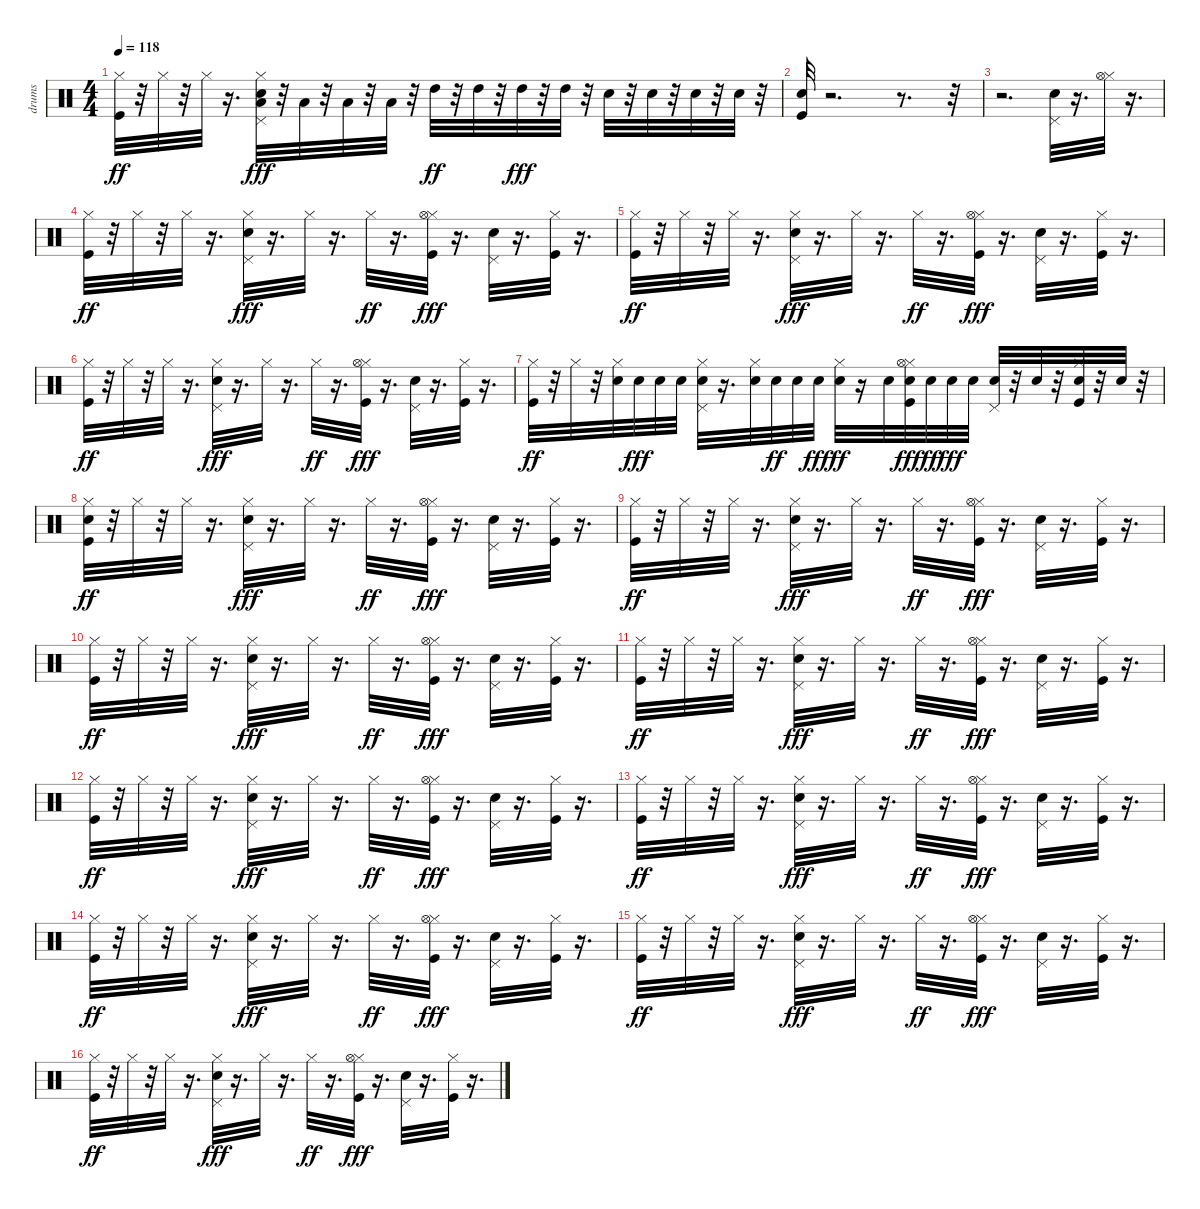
\track ("drums   " "drums   ") {instrument percussion}
\staff {score}
\articulation defaults
\ts (4 4)
\tempo 118
\clef neutral
\ks c
("Kick (hit)" "Hi-Hat (closed)").32{dy ff} r.32 "Hi-Hat (closed)".32 r.32 "Hi-Hat (closed)".32 r.16{d} ("Electric Snare (hit)" "Hi-Hat (closed)" "Pedal Hi-Hat (hit)" "Low Tom (hit)").32{dy fff} r.32 "Low Tom (hit)".32 r.32 "Low Tom (hit)".32 r.32 "Low Tom (hit)".32 r.32 "High Tom (hit)".32{dy ff} r.32 "High Tom (hit)".32 r.32 "High Tom (hit)".32{dy fff} r.32 "High Tom (hit)".32 r.32 "Electric Snare (hit)".32 r.32 "Electric Snare (hit)".32 r.32 "Electric Snare (hit)".32 r.32 "Electric Snare (hit)".32 r.32 |
("Kick (hit)" "Electric Snare (hit)").32 r.2{d} r.8{d} r.32 |
r.2{d} ("Electric Snare (hit)" "Pedal Hi-Hat (hit)").32 r.16{d} ("Hi-Hat (closed)" "Hi-Hat (open)").32 r.16{d} |
("Kick (hit)" "Hi-Hat (closed)").32{dy ff} r.32 "Hi-Hat (closed)".32 r.32 "Hi-Hat (closed)".32 r.16{d} ("Electric Snare (hit)" "Hi-Hat (closed)" "Pedal Hi-Hat (hit)").32{dy fff} r.16{d} "Hi-Hat (closed)".32 r.16{d} "Hi-Hat (closed)".32{dy ff} r.16{d} ("Kick (hit)" "Hi-Hat (closed)" "Hi-Hat (open)").32{dy fff} r.16{d} ("Electric Snare (hit)" "Pedal Hi-Hat (hit)").32 r.16{d} ("Kick (hit)" "Hi-Hat (closed)").32 r.16{d} |
("Kick (hit)" "Hi-Hat (closed)").32{dy ff} r.32 "Hi-Hat (closed)".32 r.32 "Hi-Hat (closed)".32 r.16{d} ("Electric Snare (hit)" "Hi-Hat (closed)" "Pedal Hi-Hat (hit)").32{dy fff} r.16{d} "Hi-Hat (closed)".32 r.16{d} "Hi-Hat (closed)".32{dy ff} r.16{d} ("Kick (hit)" "Hi-Hat (closed)" "Hi-Hat (open)").32{dy fff} r.16{d} ("Electric Snare (hit)" "Pedal Hi-Hat (hit)").32 r.16{d} ("Kick (hit)" "Hi-Hat (closed)").32 r.16{d} |
("Kick (hit)" "Hi-Hat (closed)").32{dy ff} r.32 "Hi-Hat (closed)".32 r.32 "Hi-Hat (closed)".32 r.16{d} ("Electric Snare (hit)" "Hi-Hat (closed)" "Pedal Hi-Hat (hit)").32{dy fff} r.16{d} "Hi-Hat (closed)".32 r.16{d} "Hi-Hat (closed)".32{dy ff} r.16{d} ("Kick (hit)" "Hi-Hat (closed)" "Hi-Hat (open)").32{dy fff} r.16{d} ("Electric Snare (hit)" "Pedal Hi-Hat (hit)").32 r.16{d} ("Kick (hit)" "Hi-Hat (closed)").32 r.16{d} |
("Kick (hit)" "Hi-Hat (closed)").32{dy ff} r.32 "Hi-Hat (closed)".32 r.32 ("Electric Snare (hit)" "Hi-Hat (closed)").32 "Electric Snare (hit)".32{dy fff} "Electric Snare (hit)".32 "Electric Snare (hit)".32 ("Electric Snare (hit)" "Hi-Hat (closed)" "Pedal Hi-Hat (hit)").32 r.16{d} ("Electric Snare (hit)" "Hi-Hat (closed)").32 "Electric Snare (hit)".32{dy ff} "Electric Snare (hit)".32 "Electric Snare (hit)".32{dy fff} ("Electric Snare (hit)" "Hi-Hat (closed)").32{dy ff} r.16 "Electric Snare (hit)".32 ("Kick (hit)" "Electric Snare (hit)" "Hi-Hat (closed)" "Hi-Hat (open)").32{dy fff} "Electric Snare (hit)".32{dy ff} "Electric Snare (hit)".32{dy fff} "Electric Snare (hit)".32 ("Electric Snare (hit)" "Pedal Hi-Hat (hit)").32 r.32 "Electric Snare (hit)".32 r.32 ("Kick (hit)" "Electric Snare (hit)" "Hi-Hat (closed)").32 r.32 "Electric Snare (hit)".32 r.32 |
("Kick (hit)" "Electric Snare (hit)" "Hi-Hat (closed)").32{dy ff} r.32 "Hi-Hat (closed)".32 r.32 "Hi-Hat (closed)".32 r.16{d} ("Electric Snare (hit)" "Hi-Hat (closed)" "Pedal Hi-Hat (hit)").32{dy fff} r.16{d} "Hi-Hat (closed)".32 r.16{d} "Hi-Hat (closed)".32{dy ff} r.16{d} ("Kick (hit)" "Hi-Hat (closed)" "Hi-Hat (open)").32{dy fff} r.16{d} ("Electric Snare (hit)" "Pedal Hi-Hat (hit)").32 r.16{d} ("Kick (hit)" "Hi-Hat (closed)").32 r.16{d} |
("Kick (hit)" "Hi-Hat (closed)").32{dy ff} r.32 "Hi-Hat (closed)".32 r.32 "Hi-Hat (closed)".32 r.16{d} ("Electric Snare (hit)" "Hi-Hat (closed)" "Pedal Hi-Hat (hit)").32{dy fff} r.16{d} "Hi-Hat (closed)".32 r.16{d} "Hi-Hat (closed)".32{dy ff} r.16{d} ("Kick (hit)" "Hi-Hat (closed)" "Hi-Hat (open)").32{dy fff} r.16{d} ("Electric Snare (hit)" "Pedal Hi-Hat (hit)").32 r.16{d} ("Kick (hit)" "Hi-Hat (closed)").32 r.16{d} |
("Kick (hit)" "Hi-Hat (closed)").32{dy ff} r.32 "Hi-Hat (closed)".32 r.32 "Hi-Hat (closed)".32 r.16{d} ("Electric Snare (hit)" "Hi-Hat (closed)" "Pedal Hi-Hat (hit)").32{dy fff} r.16{d} "Hi-Hat (closed)".32 r.16{d} "Hi-Hat (closed)".32{dy ff} r.16{d} ("Kick (hit)" "Hi-Hat (closed)" "Hi-Hat (open)").32{dy fff} r.16{d} ("Electric Snare (hit)" "Pedal Hi-Hat (hit)").32 r.16{d} ("Kick (hit)" "Hi-Hat (closed)").32 r.16{d} |
("Kick (hit)" "Hi-Hat (closed)").32{dy ff} r.32 "Hi-Hat (closed)".32 r.32 "Hi-Hat (closed)".32 r.16{d} ("Electric Snare (hit)" "Hi-Hat (closed)" "Pedal Hi-Hat (hit)").32{dy fff} r.16{d} "Hi-Hat (closed)".32 r.16{d} "Hi-Hat (closed)".32{dy ff} r.16{d} ("Kick (hit)" "Hi-Hat (closed)" "Hi-Hat (open)").32{dy fff} r.16{d} ("Electric Snare (hit)" "Pedal Hi-Hat (hit)").32 r.16{d} ("Kick (hit)" "Hi-Hat (closed)").32 r.16{d} |
("Kick (hit)" "Hi-Hat (closed)").32{dy ff} r.32 "Hi-Hat (closed)".32 r.32 "Hi-Hat (closed)".32 r.16{d} ("Electric Snare (hit)" "Hi-Hat (closed)" "Pedal Hi-Hat (hit)").32{dy fff} r.16{d} "Hi-Hat (closed)".32 r.16{d} "Hi-Hat (closed)".32{dy ff} r.16{d} ("Kick (hit)" "Hi-Hat (closed)" "Hi-Hat (open)").32{dy fff} r.16{d} ("Electric Snare (hit)" "Pedal Hi-Hat (hit)").32 r.16{d} ("Kick (hit)" "Hi-Hat (closed)").32 r.16{d} |
("Kick (hit)" "Hi-Hat (closed)").32{dy ff} r.32 "Hi-Hat (closed)".32 r.32 "Hi-Hat (closed)".32 r.16{d} ("Electric Snare (hit)" "Hi-Hat (closed)" "Pedal Hi-Hat (hit)").32{dy fff} r.16{d} "Hi-Hat (closed)".32 r.16{d} "Hi-Hat (closed)".32{dy ff} r.16{d} ("Kick (hit)" "Hi-Hat (closed)" "Hi-Hat (open)").32{dy fff} r.16{d} ("Electric Snare (hit)" "Pedal Hi-Hat (hit)").32 r.16{d} ("Kick (hit)" "Hi-Hat (closed)").32 r.16{d} |
("Kick (hit)" "Hi-Hat (closed)").32{dy ff} r.32 "Hi-Hat (closed)".32 r.32 "Hi-Hat (closed)".32 r.16{d} ("Electric Snare (hit)" "Hi-Hat (closed)" "Pedal Hi-Hat (hit)").32{dy fff} r.16{d} "Hi-Hat (closed)".32 r.16{d} "Hi-Hat (closed)".32{dy ff} r.16{d} ("Kick (hit)" "Hi-Hat (closed)" "Hi-Hat (open)").32{dy fff} r.16{d} ("Electric Snare (hit)" "Pedal Hi-Hat (hit)").32 r.16{d} ("Kick (hit)" "Hi-Hat (closed)").32 r.16{d} |
("Kick (hit)" "Hi-Hat (closed)").32{dy ff} r.32 "Hi-Hat (closed)".32 r.32 "Hi-Hat (closed)".32 r.16{d} ("Electric Snare (hit)" "Hi-Hat (closed)" "Pedal Hi-Hat (hit)").32{dy fff} r.16{d} "Hi-Hat (closed)".32 r.16{d} "Hi-Hat (closed)".32{dy ff} r.16{d} ("Kick (hit)" "Hi-Hat (closed)" "Hi-Hat (open)").32{dy fff} r.16{d} ("Electric Snare (hit)" "Pedal Hi-Hat (hit)").32 r.16{d} ("Kick (hit)" "Hi-Hat (closed)").32 r.16{d} |
("Kick (hit)" "Hi-Hat (closed)").32{dy ff} r.32 "Hi-Hat (closed)".32 r.32 "Hi-Hat (closed)".32 r.16{d} ("Electric Snare (hit)" "Hi-Hat (closed)" "Pedal Hi-Hat (hit)").32{dy fff} r.16{d} "Hi-Hat (closed)".32 r.16{d} "Hi-Hat (closed)".32{dy ff} r.16{d} ("Kick (hit)" "Hi-Hat (closed)" "Hi-Hat (open)").32{dy fff} r.16{d} ("Electric Snare (hit)" "Pedal Hi-Hat (hit)").32 r.16{d} ("Kick (hit)" "Hi-Hat (closed)").32 r.16{d}
